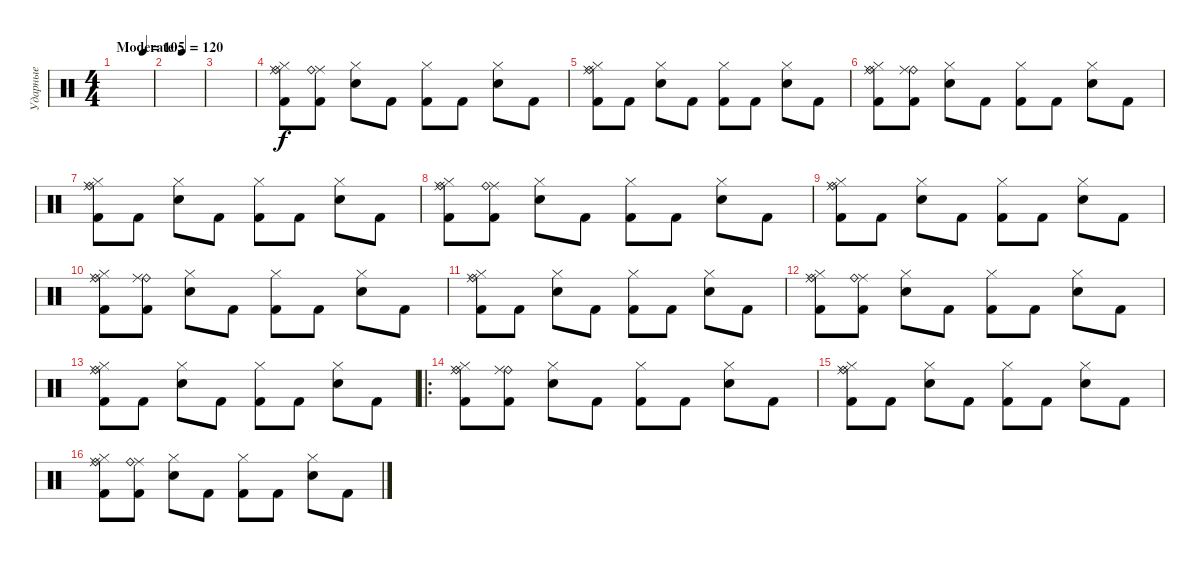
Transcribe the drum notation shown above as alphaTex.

\track ("Ударные" "Ударные") {instrument percussion}
\staff {score}
\articulation defaults
\ts (4 4)
\tempo (120 "Moderate")
\tempo (105 0.75)
\tempo (120 "Moderate")
\clef neutral
\ks c
|
|
|
("Hi-Hat (closed)" "Ride (middle)" "Ride (bell)" "Kick (hit) 2").8 ("Ride (middle)" "Ride (bell)" "Kick (hit) 2").8 ("Hi-Hat (closed)" "Electric Snare (hit)").8 "Kick (hit) 2".8 ("Hi-Hat (closed)" "Kick (hit) 2").8 "Kick (hit) 2".8 ("Hi-Hat (closed)" "Electric Snare (hit)").8 "Kick (hit) 2".8 |
("Hi-Hat (closed)" "Ride (middle)" "Ride (bell)" "Kick (hit) 2").8 "Kick (hit) 2".8 ("Hi-Hat (closed)" "Electric Snare (hit)").8 "Kick (hit) 2".8 ("Hi-Hat (closed)" "Kick (hit) 2").8 "Kick (hit) 2".8 ("Hi-Hat (closed)" "Electric Snare (hit)").8 "Kick (hit) 2".8 |
("Hi-Hat (closed)" "Ride (middle)" "Ride (bell)" "Kick (hit) 2").8 ("Ride (bell)" "Ride (middle)" "Kick (hit) 2").8 ("Hi-Hat (closed)" "Electric Snare (hit)").8 "Kick (hit) 2".8 ("Hi-Hat (closed)" "Kick (hit) 2").8 "Kick (hit) 2".8 ("Hi-Hat (closed)" "Electric Snare (hit)").8 "Kick (hit) 2".8 |
("Hi-Hat (closed)" "Ride (middle)" "Ride (bell)" "Kick (hit) 2").8 "Kick (hit) 2".8 ("Hi-Hat (closed)" "Electric Snare (hit)").8 "Kick (hit) 2".8 ("Hi-Hat (closed)" "Kick (hit) 2").8 "Kick (hit) 2".8 ("Hi-Hat (closed)" "Electric Snare (hit)").8 "Kick (hit) 2".8 |
("Hi-Hat (closed)" "Ride (middle)" "Ride (bell)" "Kick (hit) 2").8 ("Ride (middle)" "Ride (bell)" "Kick (hit) 2").8 ("Hi-Hat (closed)" "Electric Snare (hit)").8 "Kick (hit) 2".8 ("Hi-Hat (closed)" "Kick (hit) 2").8 "Kick (hit) 2".8 ("Hi-Hat (closed)" "Electric Snare (hit)").8 "Kick (hit) 2".8 |
("Hi-Hat (closed)" "Ride (middle)" "Ride (bell)" "Kick (hit) 2").8 "Kick (hit) 2".8 ("Hi-Hat (closed)" "Electric Snare (hit)").8 "Kick (hit) 2".8 ("Hi-Hat (closed)" "Kick (hit) 2").8 "Kick (hit) 2".8 ("Hi-Hat (closed)" "Electric Snare (hit)").8 "Kick (hit) 2".8 |
("Hi-Hat (closed)" "Ride (middle)" "Ride (bell)" "Kick (hit) 2").8 ("Ride (bell)" "Ride (middle)" "Kick (hit) 2").8 ("Hi-Hat (closed)" "Electric Snare (hit)").8 "Kick (hit) 2".8 ("Hi-Hat (closed)" "Kick (hit) 2").8 "Kick (hit) 2".8 ("Hi-Hat (closed)" "Electric Snare (hit)").8 "Kick (hit) 2".8 |
("Hi-Hat (closed)" "Ride (middle)" "Ride (bell)" "Kick (hit) 2").8 "Kick (hit) 2".8 ("Hi-Hat (closed)" "Electric Snare (hit)").8 "Kick (hit) 2".8 ("Hi-Hat (closed)" "Kick (hit) 2").8 "Kick (hit) 2".8 ("Hi-Hat (closed)" "Electric Snare (hit)").8 "Kick (hit) 2".8 |
("Hi-Hat (closed)" "Ride (middle)" "Ride (bell)" "Kick (hit) 2").8 ("Ride (middle)" "Ride (bell)" "Kick (hit) 2").8 ("Hi-Hat (closed)" "Electric Snare (hit)").8 "Kick (hit) 2".8 ("Hi-Hat (closed)" "Kick (hit) 2").8 "Kick (hit) 2".8 ("Hi-Hat (closed)" "Electric Snare (hit)").8 "Kick (hit) 2".8 |
("Hi-Hat (closed)" "Ride (middle)" "Ride (bell)" "Kick (hit) 2").8 "Kick (hit) 2".8 ("Hi-Hat (closed)" "Electric Snare (hit)").8 "Kick (hit) 2".8 ("Hi-Hat (closed)" "Kick (hit) 2").8 "Kick (hit) 2".8 ("Hi-Hat (closed)" "Electric Snare (hit)").8 "Kick (hit) 2".8 |
\ro
("Hi-Hat (closed)" "Ride (middle)" "Ride (bell)" "Kick (hit) 2").8 ("Ride (bell)" "Ride (middle)" "Kick (hit) 2").8 ("Hi-Hat (closed)" "Electric Snare (hit)").8 "Kick (hit) 2".8 ("Hi-Hat (closed)" "Kick (hit) 2").8 "Kick (hit) 2".8 ("Hi-Hat (closed)" "Electric Snare (hit)").8 "Kick (hit) 2".8 |
("Hi-Hat (closed)" "Ride (middle)" "Ride (bell)" "Kick (hit) 2").8 "Kick (hit) 2".8 ("Hi-Hat (closed)" "Electric Snare (hit)").8 "Kick (hit) 2".8 ("Hi-Hat (closed)" "Kick (hit) 2").8 "Kick (hit) 2".8 ("Hi-Hat (closed)" "Electric Snare (hit)").8 "Kick (hit) 2".8 |
("Hi-Hat (closed)" "Ride (middle)" "Ride (bell)" "Kick (hit) 2").8 ("Ride (middle)" "Ride (bell)" "Kick (hit) 2").8 ("Hi-Hat (closed)" "Electric Snare (hit)").8 "Kick (hit) 2".8 ("Hi-Hat (closed)" "Kick (hit) 2").8 "Kick (hit) 2".8 ("Hi-Hat (closed)" "Electric Snare (hit)").8 "Kick (hit) 2".8
